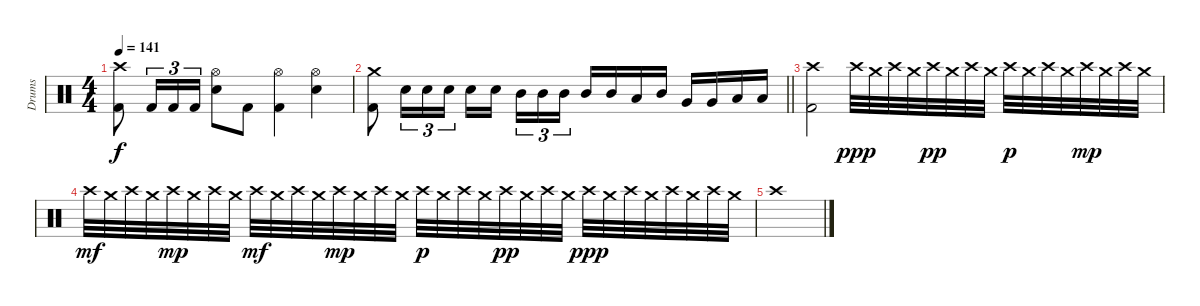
\track ("Drums" "Drums") {instrument percussion}
\staff {score}
\articulation defaults
\ts (4 4)
\tempo 141
\clef neutral
\ks c
("Crash high (hit)" "Kick (hit) 2").8{dy f} "Kick (hit) 2".16{tu (3 2)} "Kick (hit) 2".16{tu (3 2)} "Kick (hit) 2".16{tu (3 2)} ("Hi-Hat (open)" "Electric Snare (hit)").8 "Kick (hit) 2".8 ("Hi-Hat (open)" "Kick (hit) 2").4 ("Hi-Hat (open)" "Electric Snare (hit)").4 |
\barLineRight lightlight
("Crash medium (hit)" "Kick (hit) 2").8 "Electric Snare (hit)".16{tu (3 2)} "Electric Snare (hit)".16{tu (3 2)} "Electric Snare (hit)".16{tu (3 2)} "Electric Snare (hit)".16 "Electric Snare (hit)".16{beam splitsecondary} "Mid Tom (hit)".16{tu (3 2)} "Mid Tom (hit)".16{tu (3 2)} "Mid Tom (hit)".16{tu (3 2)} "Mid Tom (hit)".16 "Mid Tom (hit)".16 "Low Tom (hit)".16 "Mid Tom (hit)".16 "Very Low Tom (hit)".16 "Very Low Tom (hit)".16 "Low Floor Tom (hit)".16 "Low Floor Tom (hit)".16 |
\section ("" "")
("Crash high (hit)" "Kick (hit) 2").2 "Crash high (hit)".32{dy ppp} "Crash medium (hit)".32 "Crash high (hit)".32 "Crash medium (hit)".32 "Crash high (hit)".32{dy pp} "Crash medium (hit)".32 "Crash high (hit)".32 "Crash medium (hit)".32 "Crash high (hit)".32{dy p} "Crash medium (hit)".32 "Crash high (hit)".32 "Crash medium (hit)".32 "Crash high (hit)".32{dy mp} "Crash medium (hit)".32 "Crash high (hit)".32 "Crash medium (hit)".32 |
"Crash high (hit)".32{dy mf} "Crash medium (hit)".32 "Crash high (hit)".32 "Crash medium (hit)".32 "Crash high (hit)".32{dy mp} "Crash medium (hit)".32 "Crash high (hit)".32 "Crash medium (hit)".32 "Crash high (hit)".32{dy mf} "Crash medium (hit)".32 "Crash high (hit)".32 "Crash medium (hit)".32 "Crash high (hit)".32{dy mp} "Crash medium (hit)".32 "Crash high (hit)".32 "Crash medium (hit)".32 "Crash high (hit)".32{dy p volume 0} "Crash medium (hit)".32 "Crash high (hit)".32 "Crash medium (hit)".32 "Crash high (hit)".32{dy pp} "Crash medium (hit)".32 "Crash high (hit)".32 "Crash medium (hit)".32 "Crash high (hit)".32{dy ppp} "Crash medium (hit)".32 "Crash high (hit)".32 "Crash medium (hit)".32 "Crash high (hit)".32 "Crash medium (hit)".32 "Crash high (hit)".32 "Crash medium (hit)".32 |
"Crash high (hit)".1
